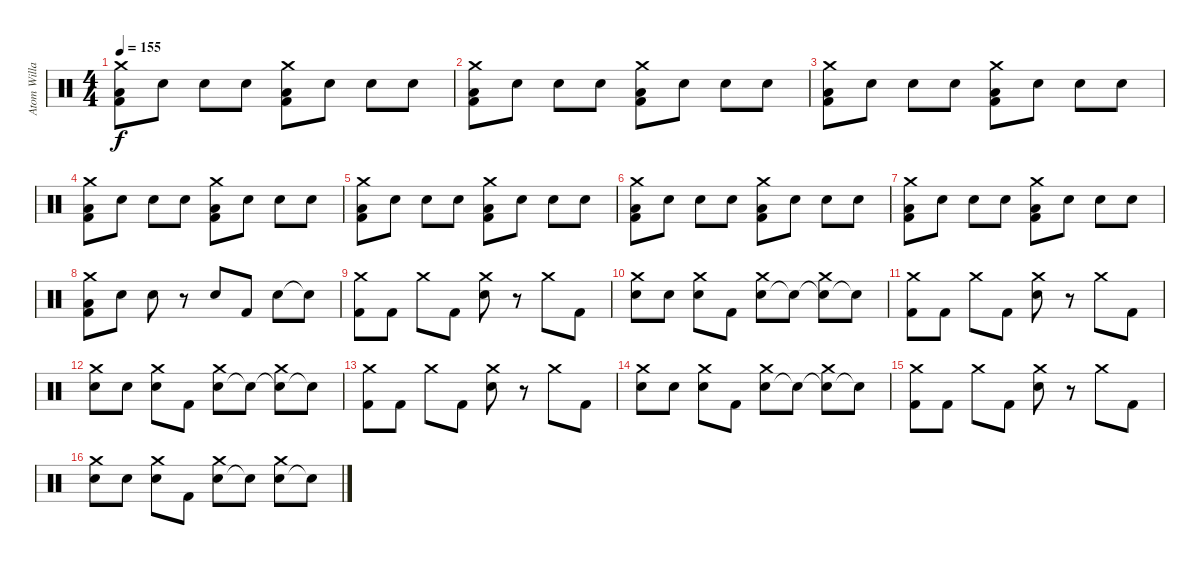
\track ("Atom Willard - Drums" "Atom Willa") {instrument percussion}
\staff {score}
\articulation defaults
\ts (4 4)
\tempo 155
\clef neutral
\ks c
("Crash medium (hit)" "Kick (hit) 2" "Low Tom (hit)").8{dy f} "Snare (hit)".8 "Snare (hit)".8 "Snare (hit)".8 ("Crash medium (hit)" "Kick (hit) 2" "Low Tom (hit)").8 "Snare (hit)".8 "Snare (hit)".8 "Snare (hit)".8 |
("Crash medium (hit)" "Kick (hit) 2" "Low Tom (hit)").8 "Snare (hit)".8 "Snare (hit)".8 "Snare (hit)".8 ("Crash medium (hit)" "Kick (hit) 2" "Low Tom (hit)").8 "Snare (hit)".8 "Snare (hit)".8 "Snare (hit)".8 |
("Crash medium (hit)" "Kick (hit) 2" "Low Tom (hit)").8 "Snare (hit)".8 "Snare (hit)".8 "Snare (hit)".8 ("Crash medium (hit)" "Kick (hit) 2" "Low Tom (hit)").8 "Snare (hit)".8 "Snare (hit)".8 "Snare (hit)".8 |
("Crash medium (hit)" "Kick (hit) 2" "Low Tom (hit)").8 "Snare (hit)".8 "Snare (hit)".8 "Snare (hit)".8 ("Crash medium (hit)" "Kick (hit) 2" "Low Tom (hit)").8 "Snare (hit)".8 "Snare (hit)".8 "Snare (hit)".8 |
("Crash medium (hit)" "Kick (hit) 2" "Low Tom (hit)").8 "Snare (hit)".8 "Snare (hit)".8 "Snare (hit)".8 ("Crash medium (hit)" "Kick (hit) 2" "Low Tom (hit)").8 "Snare (hit)".8 "Snare (hit)".8 "Snare (hit)".8 |
("Crash medium (hit)" "Kick (hit) 2" "Low Tom (hit)").8 "Snare (hit)".8 "Snare (hit)".8 "Snare (hit)".8 ("Crash medium (hit)" "Kick (hit) 2" "Low Tom (hit)").8 "Snare (hit)".8 "Snare (hit)".8 "Snare (hit)".8 |
("Crash medium (hit)" "Kick (hit) 2" "Low Tom (hit)").8 "Snare (hit)".8 "Snare (hit)".8 "Snare (hit)".8 ("Crash medium (hit)" "Kick (hit) 2" "Low Tom (hit)").8 "Snare (hit)".8 "Snare (hit)".8 "Snare (hit)".8 |
("Crash medium (hit)" "Kick (hit) 2" "Low Tom (hit)").8 "Snare (hit)".8 "Snare (hit)".8 r.8 "Electric Snare (hit)".8 "Kick (hit) 2".8 "Electric Snare (hit)".8 "Snare (hit)"{t}.8 |
("Kick (hit) 2" "Crash medium (hit)").8 "Kick (hit) 2".8 "Crash medium (hit)".8 "Kick (hit) 2".8 ("Electric Snare (hit)" "Crash medium (hit)").8 r.8 "Crash medium (hit)".8 "Kick (hit) 2".8 |
("Snare (hit)" "Crash medium (hit)").8 "Electric Snare (hit)".8 ("Snare (hit)" "Crash medium (hit)").8 "Kick (hit) 2".8 ("Electric Snare (hit)" "Crash medium (hit)").8 "Snare (hit)"{t}.8 ("Snare (hit)"{t} "Crash medium (hit)").8 "Snare (hit)"{t}.8 |
("Kick (hit) 2" "Crash medium (hit)").8 "Kick (hit) 2".8 "Crash medium (hit)".8 "Kick (hit) 2".8 ("Electric Snare (hit)" "Crash medium (hit)").8 r.8 "Crash medium (hit)".8 "Kick (hit) 2".8 |
("Snare (hit)" "Crash medium (hit)").8 "Electric Snare (hit)".8 ("Snare (hit)" "Crash medium (hit)").8 "Kick (hit) 2".8 ("Electric Snare (hit)" "Crash medium (hit)").8 "Snare (hit)"{t}.8 ("Snare (hit)"{t} "Crash medium (hit)").8 "Snare (hit)"{t}.8 |
("Kick (hit) 2" "Crash medium (hit)").8 "Kick (hit) 2".8 "Crash medium (hit)".8 "Kick (hit) 2".8 ("Electric Snare (hit)" "Crash medium (hit)").8 r.8 "Crash medium (hit)".8 "Kick (hit) 2".8 |
("Snare (hit)" "Crash medium (hit)").8 "Electric Snare (hit)".8 ("Snare (hit)" "Crash medium (hit)").8 "Kick (hit) 2".8 ("Electric Snare (hit)" "Crash medium (hit)").8 "Snare (hit)"{t}.8 ("Snare (hit)"{t} "Crash medium (hit)").8 "Snare (hit)"{t}.8 |
("Kick (hit) 2" "Crash medium (hit)").8 "Kick (hit) 2".8 "Crash medium (hit)".8 "Kick (hit) 2".8 ("Electric Snare (hit)" "Crash medium (hit)").8 r.8 "Crash medium (hit)".8 "Kick (hit) 2".8 |
("Snare (hit)" "Crash medium (hit)").8 "Electric Snare (hit)".8 ("Snare (hit)" "Crash medium (hit)").8 "Kick (hit) 2".8 ("Electric Snare (hit)" "Crash medium (hit)").8 "Snare (hit)"{t}.8 ("Electric Snare (hit)" "Crash medium (hit)").8 "Snare (hit)"{t}.8
